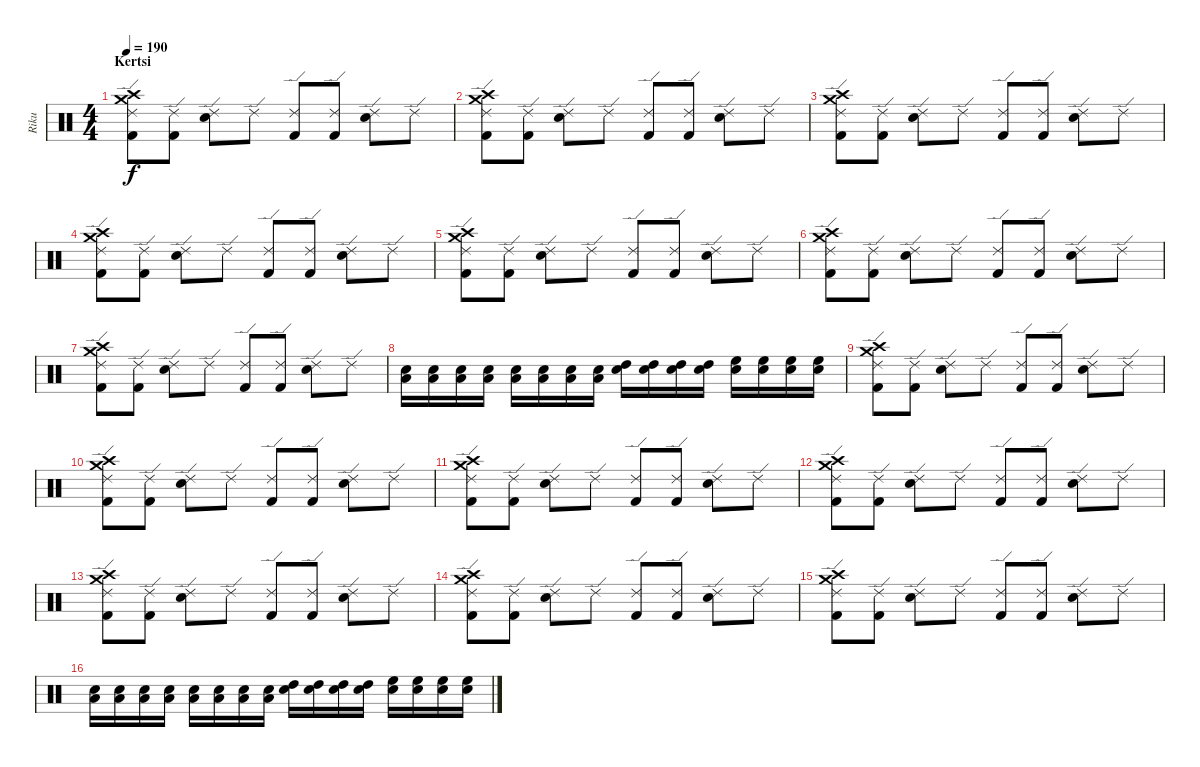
\track ("Riku" "Riku") {instrument percussion}
\staff {score}
\articulation defaults
\ts (4 4)
\section ("" "Kertsi")
\tempo 190
\clef neutral
\ks c
("Crash high (hit)" "Kick (hit) 2" "Ride (edge) 2" "Crash medium (hit)").8{dy f} ("Kick (hit) 2" "Ride (edge) 2").8 ("Snare (hit) 2" "Ride (edge) 2").8 "Ride (edge) 2".8 ("Kick (hit) 2" "Ride (edge) 2").8 ("Kick (hit) 2" "Ride (edge) 2").8 ("Snare (hit) 2" "Ride (edge) 2").8 "Ride (edge) 2".8 |
("Crash high (hit)" "Kick (hit) 2" "Ride (edge) 2" "Crash medium (hit)").8 ("Kick (hit) 2" "Ride (edge) 2").8 ("Snare (hit) 2" "Ride (edge) 2").8 "Ride (edge) 2".8 ("Kick (hit) 2" "Ride (edge) 2").8 ("Kick (hit) 2" "Ride (edge) 2").8 ("Snare (hit) 2" "Ride (edge) 2").8 "Ride (edge) 2".8 |
("Crash high (hit)" "Kick (hit) 2" "Ride (edge) 2" "Crash medium (hit)").8 ("Kick (hit) 2" "Ride (edge) 2").8 ("Snare (hit) 2" "Ride (edge) 2").8 "Ride (edge) 2".8 ("Kick (hit) 2" "Ride (edge) 2").8 ("Kick (hit) 2" "Ride (edge) 2").8 ("Snare (hit) 2" "Ride (edge) 2").8 "Ride (edge) 2".8 |
("Crash high (hit)" "Kick (hit) 2" "Ride (edge) 2" "Crash medium (hit)").8 ("Kick (hit) 2" "Ride (edge) 2").8 ("Snare (hit) 2" "Ride (edge) 2").8 "Ride (edge) 2".8 ("Kick (hit) 2" "Ride (edge) 2").8 ("Kick (hit) 2" "Ride (edge) 2").8 ("Snare (hit) 2" "Ride (edge) 2").8 "Ride (edge) 2".8 |
("Crash high (hit)" "Kick (hit) 2" "Ride (edge) 2" "Crash medium (hit)").8 ("Kick (hit) 2" "Ride (edge) 2").8 ("Snare (hit) 2" "Ride (edge) 2").8 "Ride (edge) 2".8 ("Kick (hit) 2" "Ride (edge) 2").8 ("Kick (hit) 2" "Ride (edge) 2").8 ("Snare (hit) 2" "Ride (edge) 2").8 "Ride (edge) 2".8 |
("Crash high (hit)" "Kick (hit) 2" "Ride (edge) 2" "Crash medium (hit)").8 ("Kick (hit) 2" "Ride (edge) 2").8 ("Snare (hit) 2" "Ride (edge) 2").8 "Ride (edge) 2".8 ("Kick (hit) 2" "Ride (edge) 2").8 ("Kick (hit) 2" "Ride (edge) 2").8 ("Snare (hit) 2" "Ride (edge) 2").8 "Ride (edge) 2".8 |
("Crash high (hit)" "Kick (hit) 2" "Ride (edge) 2" "Crash medium (hit)").8 ("Kick (hit) 2" "Ride (edge) 2").8 ("Snare (hit) 2" "Ride (edge) 2").8 "Ride (edge) 2".8 ("Kick (hit) 2" "Ride (edge) 2").8 ("Kick (hit) 2" "Ride (edge) 2").8 ("Snare (hit) 2" "Ride (edge) 2").8 "Ride (edge) 2".8 |
("Snare (hit) 2" "Low Floor Tom (hit)").16 ("Snare (hit) 2" "Low Floor Tom (hit)").16 ("Snare (hit) 2" "Low Floor Tom (hit)").16 ("Snare (hit) 2" "Low Floor Tom (hit)").16 ("Snare (hit) 2" "Low Tom (hit)").16 ("Snare (hit) 2" "Low Tom (hit)").16 ("Snare (hit) 2" "Low Tom (hit)").16 ("Snare (hit) 2" "Low Tom (hit)").16 ("Snare (hit) 2" "High Tom (hit)").16 ("Snare (hit) 2" "High Tom (hit)").16 ("Snare (hit) 2" "High Tom (hit)").16 ("Snare (hit) 2" "High Tom (hit)").16 ("Snare (hit) 2" "High Floor Tom (hit)").16 ("Snare (hit) 2" "High Floor Tom (hit)").16 ("Snare (hit) 2" "High Floor Tom (hit)").16 ("Snare (hit) 2" "High Floor Tom (hit)").16 |
("Crash high (hit)" "Kick (hit) 2" "Ride (edge) 2" "Crash medium (hit)").8 ("Kick (hit) 2" "Ride (edge) 2").8 ("Snare (hit) 2" "Ride (edge) 2").8 "Ride (edge) 2".8 ("Kick (hit) 2" "Ride (edge) 2").8 ("Kick (hit) 2" "Ride (edge) 2").8 ("Snare (hit) 2" "Ride (edge) 2").8 "Ride (edge) 2".8 |
("Crash high (hit)" "Kick (hit) 2" "Ride (edge) 2" "Crash medium (hit)").8 ("Kick (hit) 2" "Ride (edge) 2").8 ("Snare (hit) 2" "Ride (edge) 2").8 "Ride (edge) 2".8 ("Kick (hit) 2" "Ride (edge) 2").8 ("Kick (hit) 2" "Ride (edge) 2").8 ("Snare (hit) 2" "Ride (edge) 2").8 "Ride (edge) 2".8 |
("Crash high (hit)" "Kick (hit) 2" "Ride (edge) 2" "Crash medium (hit)").8 ("Kick (hit) 2" "Ride (edge) 2").8 ("Snare (hit) 2" "Ride (edge) 2").8 "Ride (edge) 2".8 ("Kick (hit) 2" "Ride (edge) 2").8 ("Kick (hit) 2" "Ride (edge) 2").8 ("Snare (hit) 2" "Ride (edge) 2").8 "Ride (edge) 2".8 |
("Crash high (hit)" "Kick (hit) 2" "Ride (edge) 2" "Crash medium (hit)").8 ("Kick (hit) 2" "Ride (edge) 2").8 ("Snare (hit) 2" "Ride (edge) 2").8 "Ride (edge) 2".8 ("Kick (hit) 2" "Ride (edge) 2").8 ("Kick (hit) 2" "Ride (edge) 2").8 ("Snare (hit) 2" "Ride (edge) 2").8 "Ride (edge) 2".8 |
("Crash high (hit)" "Kick (hit) 2" "Ride (edge) 2" "Crash medium (hit)").8 ("Kick (hit) 2" "Ride (edge) 2").8 ("Snare (hit) 2" "Ride (edge) 2").8 "Ride (edge) 2".8 ("Kick (hit) 2" "Ride (edge) 2").8 ("Kick (hit) 2" "Ride (edge) 2").8 ("Snare (hit) 2" "Ride (edge) 2").8 "Ride (edge) 2".8 |
("Crash high (hit)" "Kick (hit) 2" "Ride (edge) 2" "Crash medium (hit)").8 ("Kick (hit) 2" "Ride (edge) 2").8 ("Snare (hit) 2" "Ride (edge) 2").8 "Ride (edge) 2".8 ("Kick (hit) 2" "Ride (edge) 2").8 ("Kick (hit) 2" "Ride (edge) 2").8 ("Snare (hit) 2" "Ride (edge) 2").8 "Ride (edge) 2".8 |
("Crash high (hit)" "Kick (hit) 2" "Ride (edge) 2" "Crash medium (hit)").8 ("Kick (hit) 2" "Ride (edge) 2").8 ("Snare (hit) 2" "Ride (edge) 2").8 "Ride (edge) 2".8 ("Kick (hit) 2" "Ride (edge) 2").8 ("Kick (hit) 2" "Ride (edge) 2").8 ("Snare (hit) 2" "Ride (edge) 2").8 "Ride (edge) 2".8 |
("Snare (hit) 2" "Low Floor Tom (hit)").16 ("Snare (hit) 2" "Low Floor Tom (hit)").16 ("Snare (hit) 2" "Low Floor Tom (hit)").16 ("Snare (hit) 2" "Low Floor Tom (hit)").16 ("Snare (hit) 2" "Low Tom (hit)").16 ("Snare (hit) 2" "Low Tom (hit)").16 ("Snare (hit) 2" "Low Tom (hit)").16 ("Snare (hit) 2" "Low Tom (hit)").16 ("Snare (hit) 2" "High Tom (hit)").16 ("Snare (hit) 2" "High Tom (hit)").16 ("Snare (hit) 2" "High Tom (hit)").16 ("Snare (hit) 2" "High Tom (hit)").16 ("Snare (hit) 2" "High Floor Tom (hit)").16 ("Snare (hit) 2" "High Floor Tom (hit)").16 ("Snare (hit) 2" "High Floor Tom (hit)").16 ("Snare (hit) 2" "High Floor Tom (hit)").16
